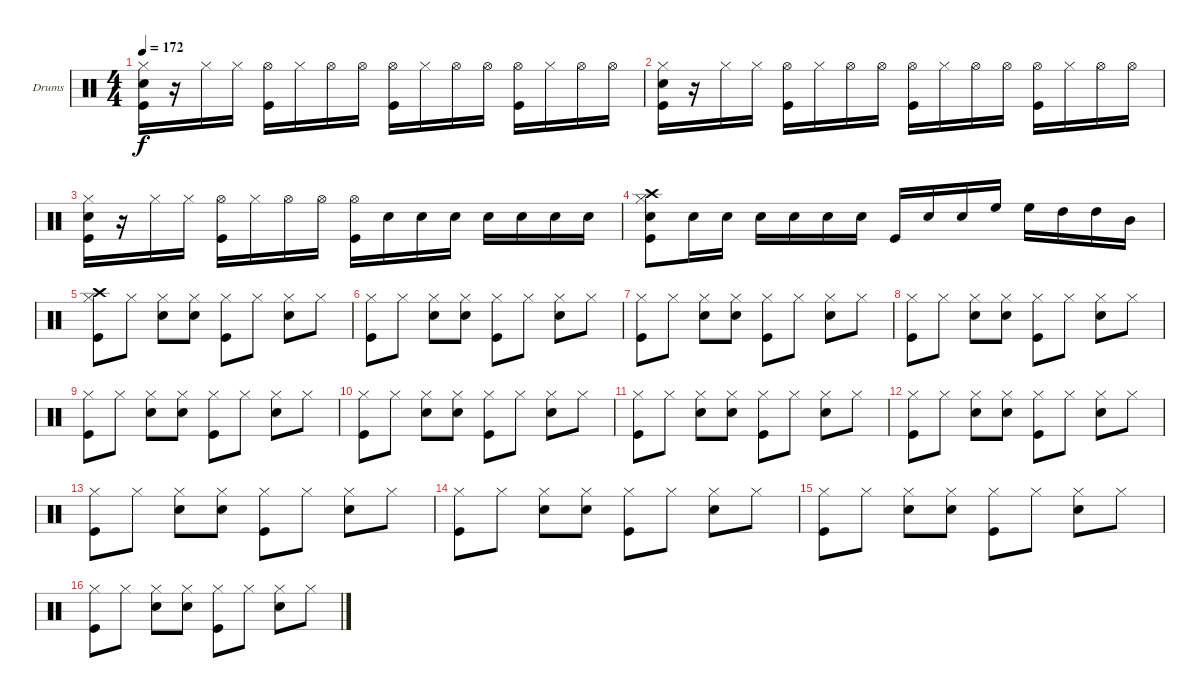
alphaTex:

\bracketExtendMode groupsimilarinstruments
\firstSystemTrackNameOrientation horizontal
\otherSystemsTrackNameOrientation horizontal
\track ("Drumkit" "Drums") {instrument percussion}
\staff {score}
\articulation defaults
\ts (4 4)
\tempo 172
\clef neutral
\ks c
("Hi-Hat (closed)" "Snare (hit) 2" "Kick (hit)").16{dy f} r.16 "Hi-Hat (closed)".16 "Hi-Hat (closed)".16 ("Kick (hit)" "Hi-Hat (open)").16 "Hi-Hat (closed)".16 "Hi-Hat (open)".16 "Hi-Hat (open)".16 ("Kick (hit)" "Hi-Hat (open)").16 "Hi-Hat (closed)".16 "Hi-Hat (open)".16 "Hi-Hat (open)".16 ("Kick (hit)" "Hi-Hat (open)").16 "Hi-Hat (closed)".16 "Hi-Hat (open)".16 "Hi-Hat (open)".16 |
("Hi-Hat (closed)" "Snare (hit) 2" "Kick (hit)").16 r.16 "Hi-Hat (closed)".16 "Hi-Hat (closed)".16 ("Kick (hit)" "Hi-Hat (open)").16 "Hi-Hat (closed)".16 "Hi-Hat (open)".16 "Hi-Hat (open)".16 ("Kick (hit)" "Hi-Hat (open)").16 "Hi-Hat (closed)".16 "Hi-Hat (open)".16 "Hi-Hat (open)".16 ("Kick (hit)" "Hi-Hat (open)").16 "Hi-Hat (closed)".16 "Hi-Hat (open)".16 "Hi-Hat (open)".16 |
("Hi-Hat (closed)" "Snare (hit) 2" "Kick (hit)").16 r.16 "Hi-Hat (closed)".16 "Hi-Hat (closed)".16 ("Kick (hit)" "Hi-Hat (open)").16 "Hi-Hat (closed)".16 "Hi-Hat (open)".16 "Hi-Hat (open)".16 ("Kick (hit)" "Hi-Hat (open)").16 "Snare (hit) 2".16 "Snare (hit) 2".16 "Snare (hit) 2".16 "Snare (hit) 2".16 "Snare (hit) 2".16 "Snare (hit) 2".16 "Snare (hit) 2".16 |
("Crash high (hit)" "Hi-Hat (closed)" "Snare (hit) 2" "Kick (hit)").8 "Snare (hit) 2".16 "Snare (hit) 2".16 "Snare (hit) 2".16 "Snare (hit) 2".16 "Snare (hit) 2".16 "Snare (hit) 2".16 "Kick (hit)".16 "Snare (hit) 2".16 "Snare (hit) 2".16 "High Floor Tom (hit)".16 "High Floor Tom (hit)".16 "High Tom (hit)".16 "High Tom (hit)".16 "Mid Tom (hit)".16 |
("Hi-Hat (closed)" "Crash high (hit)" "Kick (hit)").8 "Hi-Hat (closed)".8 ("Snare (hit) 2" "Hi-Hat (closed)").8 ("Snare (hit) 2" "Hi-Hat (closed)").8 ("Hi-Hat (closed)" "Kick (hit)").8 "Hi-Hat (closed)".8 ("Snare (hit) 2" "Hi-Hat (closed)").8 "Hi-Hat (closed)".8 |
("Hi-Hat (closed)" "Kick (hit)").8 "Hi-Hat (closed)".8 ("Snare (hit) 2" "Hi-Hat (closed)").8 ("Snare (hit) 2" "Hi-Hat (closed)").8 ("Hi-Hat (closed)" "Kick (hit)").8 "Hi-Hat (closed)".8 ("Snare (hit) 2" "Hi-Hat (closed)").8 "Hi-Hat (closed)".8 |
("Hi-Hat (closed)" "Kick (hit)").8 "Hi-Hat (closed)".8 ("Snare (hit) 2" "Hi-Hat (closed)").8 ("Snare (hit) 2" "Hi-Hat (closed)").8 ("Hi-Hat (closed)" "Kick (hit)").8 "Hi-Hat (closed)".8 ("Snare (hit) 2" "Hi-Hat (closed)").8 "Hi-Hat (closed)".8 |
("Hi-Hat (closed)" "Kick (hit)").8 "Hi-Hat (closed)".8 ("Snare (hit) 2" "Hi-Hat (closed)").8 ("Snare (hit) 2" "Hi-Hat (closed)").8 ("Hi-Hat (closed)" "Kick (hit)").8 "Hi-Hat (closed)".8 ("Snare (hit) 2" "Hi-Hat (closed)").8 "Hi-Hat (closed)".8 |
("Hi-Hat (closed)" "Kick (hit)").8 "Hi-Hat (closed)".8 ("Snare (hit) 2" "Hi-Hat (closed)").8 ("Snare (hit) 2" "Hi-Hat (closed)").8 ("Hi-Hat (closed)" "Kick (hit)").8 "Hi-Hat (closed)".8 ("Snare (hit) 2" "Hi-Hat (closed)").8 "Hi-Hat (closed)".8 |
("Hi-Hat (closed)" "Kick (hit)").8 "Hi-Hat (closed)".8 ("Snare (hit) 2" "Hi-Hat (closed)").8 ("Snare (hit) 2" "Hi-Hat (closed)").8 ("Hi-Hat (closed)" "Kick (hit)").8 "Hi-Hat (closed)".8 ("Snare (hit) 2" "Hi-Hat (closed)").8 "Hi-Hat (closed)".8 |
("Hi-Hat (closed)" "Kick (hit)").8 "Hi-Hat (closed)".8 ("Snare (hit) 2" "Hi-Hat (closed)").8 ("Snare (hit) 2" "Hi-Hat (closed)").8 ("Hi-Hat (closed)" "Kick (hit)").8 "Hi-Hat (closed)".8 ("Snare (hit) 2" "Hi-Hat (closed)").8 "Hi-Hat (closed)".8 |
("Hi-Hat (closed)" "Kick (hit)").8 "Hi-Hat (closed)".8 ("Snare (hit) 2" "Hi-Hat (closed)").8 ("Snare (hit) 2" "Hi-Hat (closed)").8 ("Hi-Hat (closed)" "Kick (hit)").8 "Hi-Hat (closed)".8 ("Snare (hit) 2" "Hi-Hat (closed)").8 "Hi-Hat (closed)".8 |
("Hi-Hat (closed)" "Kick (hit)").8 "Hi-Hat (closed)".8 ("Snare (hit) 2" "Hi-Hat (closed)").8 ("Snare (hit) 2" "Hi-Hat (closed)").8 ("Hi-Hat (closed)" "Kick (hit)").8 "Hi-Hat (closed)".8 ("Snare (hit) 2" "Hi-Hat (closed)").8 "Hi-Hat (closed)".8 |
("Hi-Hat (closed)" "Kick (hit)").8 "Hi-Hat (closed)".8 ("Snare (hit) 2" "Hi-Hat (closed)").8 ("Snare (hit) 2" "Hi-Hat (closed)").8 ("Hi-Hat (closed)" "Kick (hit)").8 "Hi-Hat (closed)".8 ("Snare (hit) 2" "Hi-Hat (closed)").8 "Hi-Hat (closed)".8 |
("Hi-Hat (closed)" "Kick (hit)").8 "Hi-Hat (closed)".8 ("Snare (hit) 2" "Hi-Hat (closed)").8 ("Snare (hit) 2" "Hi-Hat (closed)").8 ("Hi-Hat (closed)" "Kick (hit)").8 "Hi-Hat (closed)".8 ("Snare (hit) 2" "Hi-Hat (closed)").8 "Hi-Hat (closed)".8 |
("Hi-Hat (closed)" "Kick (hit)").8 "Hi-Hat (closed)".8 ("Snare (hit) 2" "Hi-Hat (closed)").8 ("Snare (hit) 2" "Hi-Hat (closed)").8 ("Hi-Hat (closed)" "Kick (hit)").8 "Hi-Hat (closed)".8 ("Snare (hit) 2" "Hi-Hat (closed)").8 "Hi-Hat (closed)".8
